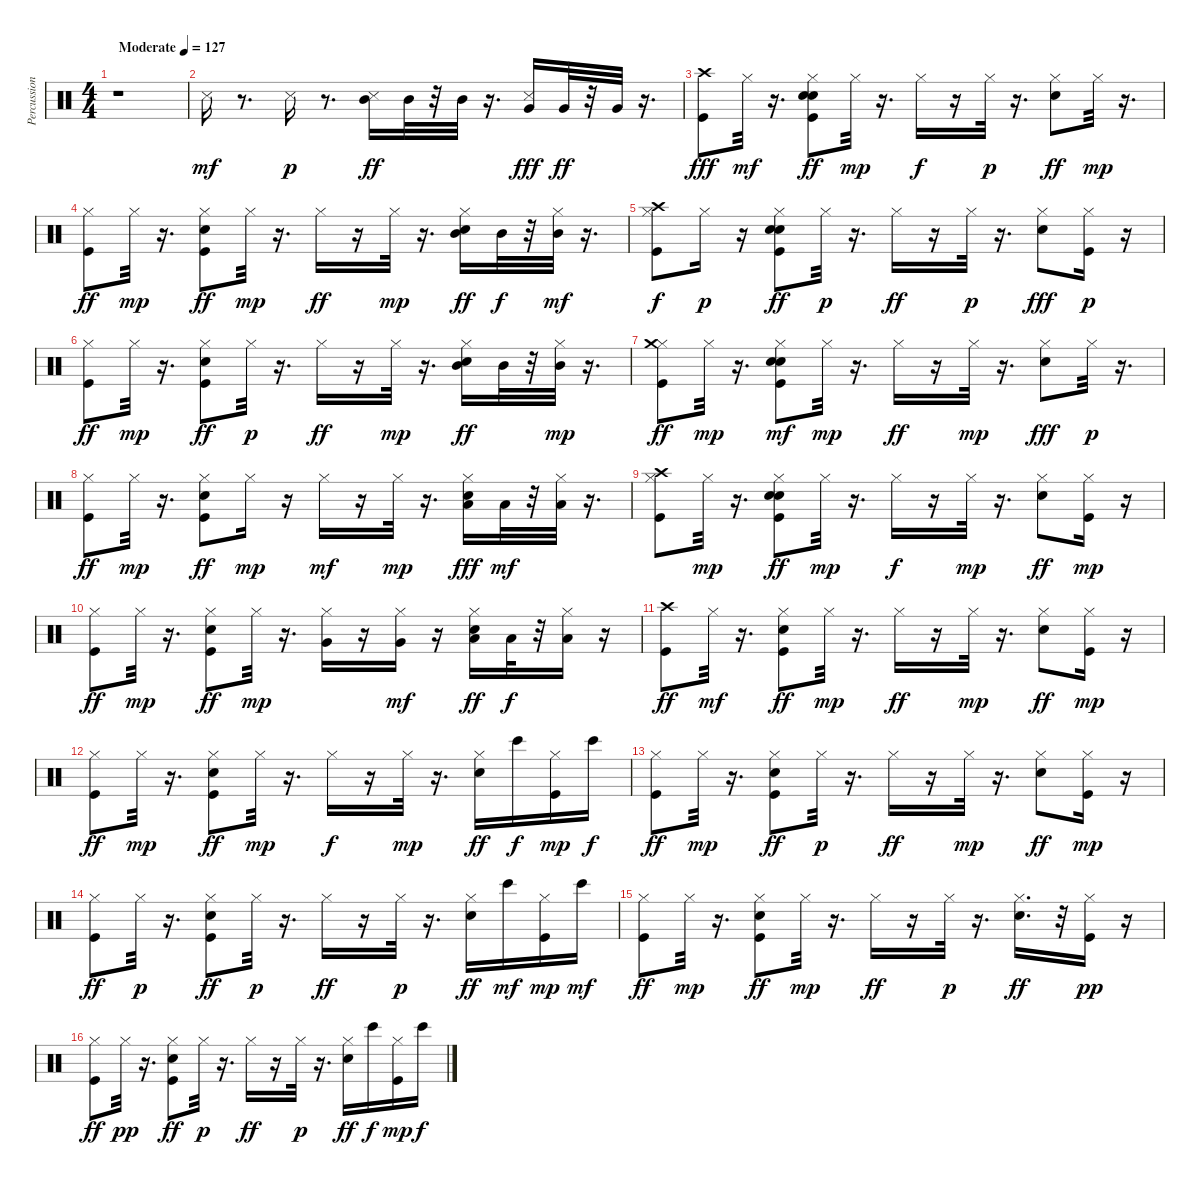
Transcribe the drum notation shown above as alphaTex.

\track ("Percussions (drums + hihats)" "Percussion") {instrument percussion}
\staff {score}
\articulation defaults
\ts (4 4)
\tempo (127 "Moderate")
\clef neutral
\ks c
r.1{dy mf} |
"Snare (side stick) 3".16 r.8{d} "Snare (side stick) 3".16{dy p} r.8{d} ("Snare (side stick) 3" "Mid Tom (hit)").16{dy ff} "Mid Tom (hit)".32 r.32 "Mid Tom (hit)".32 r.16{d} ("Snare (side stick) 3" "Very Low Tom (hit)").16{dy fff} "Very Low Tom (hit)".32{dy ff} r.32 "Very Low Tom (hit)".32 r.16{d} |
("Crash high (hit)" "Kick (hit)").8{dy fff} "Hi-Hat (closed)".32{dy mf} r.16{d} ("Kick (hit)" "Snare (hit) 2" "Electric Snare (hit)" "Hi-Hat (closed)").8{dy ff} "Hi-Hat (closed)".32{dy mp} r.16{d} "Hi-Hat (closed)".16{dy f} r.16 "Hi-Hat (closed)".32{dy p} r.16{d} ("Snare (hit) 2" "Hi-Hat (closed)").8{dy ff} "Hi-Hat (closed)".32{dy mp} r.16{d} |
("Kick (hit)" "Hi-Hat (closed)").8{dy ff} "Hi-Hat (closed)".32{dy mp} r.16{d} ("Kick (hit)" "Snare (hit) 2" "Hi-Hat (closed)").8{dy ff} "Hi-Hat (closed)".32{dy mp} r.16{d} "Hi-Hat (closed)".16{dy ff} r.16 "Hi-Hat (closed)".32{dy mp} r.16{d} ("Snare (hit) 2" "Hi-Hat (closed)" "Mid Tom (hit)").16{dy ff} "Mid Tom (hit)".32{dy f} r.32 ("Hi-Hat (closed)" "Mid Tom (hit)").32{dy mf} r.16{d} |
("Kick (hit)" "Hi-Hat (closed)" "Crash high (hit)").8{dy f} "Hi-Hat (closed)".16{dy p} r.16 ("Kick (hit)" "Snare (hit) 2" "Electric Snare (hit)" "Hi-Hat (closed)").8{dy ff} "Hi-Hat (closed)".32{dy p} r.16{d} "Hi-Hat (closed)".16{dy ff} r.16 "Hi-Hat (closed)".32{dy p} r.16{d} ("Snare (hit) 2" "Hi-Hat (closed)").8{dy fff} ("Kick (hit)" "Hi-Hat (closed)").16{dy p} r.16 |
("Kick (hit)" "Hi-Hat (closed)").8{dy ff} "Hi-Hat (closed)".32{dy mp} r.16{d} ("Kick (hit)" "Snare (hit) 2" "Hi-Hat (closed)").8{dy ff} "Hi-Hat (closed)".32{dy p} r.16{d} "Hi-Hat (closed)".16{dy ff} r.16 "Hi-Hat (closed)".32{dy mp} r.16{d} ("Snare (hit) 2" "Hi-Hat (closed)" "Mid Tom (hit)").16{dy ff} "Mid Tom (hit)".32 r.32 ("Hi-Hat (closed)" "Mid Tom (hit)").32{dy mp} r.16{d} |
("Kick (hit)" "Hi-Hat (closed)" "Crash medium (hit)").8{dy ff} "Hi-Hat (closed)".32{dy mp} r.16{d} ("Kick (hit)" "Snare (hit) 2" "Electric Snare (hit)" "Hi-Hat (closed)").8{dy mf} "Hi-Hat (closed)".32{dy mp} r.16{d} "Hi-Hat (closed)".16{dy ff} r.16 "Hi-Hat (closed)".32{dy mp} r.16{d} ("Snare (hit) 2" "Hi-Hat (closed)").8{dy fff} "Hi-Hat (closed)".32{dy p} r.16{d} |
("Kick (hit)" "Hi-Hat (closed)").8{dy ff} "Hi-Hat (closed)".32{dy mp} r.16{d} ("Kick (hit)" "Snare (hit) 2" "Hi-Hat (closed)").8{dy ff} "Hi-Hat (closed)".16{dy mp} r.16 "Hi-Hat (closed)".16{dy mf} r.16 "Hi-Hat (closed)".32{dy mp} r.16{d} ("Snare (hit) 2" "Hi-Hat (closed)" "Low Tom (hit)").16{dy fff} "Low Tom (hit)".32{dy mf} r.32 ("Hi-Hat (closed)" "Low Tom (hit)").32 r.16{d} |
("Kick (hit)" "Hi-Hat (closed)" "Crash high (hit)").8 "Hi-Hat (closed)".32{dy mp} r.16{d} ("Kick (hit)" "Snare (hit) 2" "Electric Snare (hit)" "Hi-Hat (closed)").8{dy ff} "Hi-Hat (closed)".32{dy mp} r.16{d} "Hi-Hat (closed)".16{dy f} r.16 "Hi-Hat (closed)".32{dy mp} r.16{d} ("Snare (hit) 2" "Hi-Hat (closed)").8{dy ff} ("Kick (hit)" "Hi-Hat (closed)").16{dy mp} r.16 |
("Kick (hit)" "Hi-Hat (closed)").8{dy ff} "Hi-Hat (closed)".32{dy mp} r.16{d} ("Kick (hit)" "Snare (hit) 2" "Hi-Hat (closed)").8{dy ff} "Hi-Hat (closed)".32{dy mp} r.16{d} ("Hi-Hat (closed)" "Very Low Tom (hit)").16 r.16 ("Hi-Hat (closed)" "Very Low Tom (hit)").16{dy mf} r.16 ("Snare (hit) 2" "Hi-Hat (closed)" "Low Tom (hit)").16{dy ff} "Low Tom (hit)".32{dy f} r.32 ("Hi-Hat (closed)" "Low Tom (hit)").16 r.16 |
("Crash high (hit)" "Kick (hit)").8{dy ff} "Hi-Hat (closed)".32{dy mf} r.16{d} ("Kick (hit)" "Snare (hit) 2" "Hi-Hat (closed)").8{dy ff} "Hi-Hat (closed)".32{dy mp} r.16{d} "Hi-Hat (closed)".16{dy ff} r.16 "Hi-Hat (closed)".32{dy mp} r.16{d} ("Snare (hit) 2" "Hi-Hat (closed)").8{dy ff} ("Kick (hit)" "Hi-Hat (closed)").16{dy mp} r.16 |
("Kick (hit)" "Hi-Hat (closed)").8{dy ff} "Hi-Hat (closed)".32{dy mp} r.16{d} ("Kick (hit)" "Snare (hit) 2" "Hi-Hat (closed)").8{dy ff} "Hi-Hat (closed)".32{dy mp} r.16{d} "Hi-Hat (closed)".16{dy f} r.16 "Hi-Hat (closed)".32{dy mp} r.16{d} ("Snare (hit) 2" "Hi-Hat (closed)").16{dy ff} "Bongo High (hit)".16{dy f} ("Kick (hit)" "Hi-Hat (closed)").16{dy mp} "Bongo High (hit)".16{dy f} |
("Kick (hit)" "Hi-Hat (closed)").8{dy ff} "Hi-Hat (closed)".32{dy mp} r.16{d} ("Kick (hit)" "Snare (hit) 2" "Hi-Hat (closed)").8{dy ff} "Hi-Hat (closed)".32{dy p} r.16{d} "Hi-Hat (closed)".16{dy ff} r.16 "Hi-Hat (closed)".32{dy mp} r.16{d} ("Snare (hit) 2" "Hi-Hat (closed)").8{dy ff} ("Kick (hit)" "Hi-Hat (closed)").16{dy mp} r.16 |
("Kick (hit)" "Hi-Hat (closed)").8{dy ff} "Hi-Hat (closed)".32{dy p} r.16{d} ("Kick (hit)" "Snare (hit) 2" "Hi-Hat (closed)").8{dy ff} "Hi-Hat (closed)".32{dy p} r.16{d} "Hi-Hat (closed)".16{dy ff} r.16 "Hi-Hat (closed)".32{dy p} r.16{d} ("Snare (hit) 2" "Hi-Hat (closed)").16{dy ff} "Bongo High (hit)".16{dy mf} ("Kick (hit)" "Hi-Hat (closed)").16{dy mp} "Bongo High (hit)".16{dy mf} |
("Kick (hit)" "Hi-Hat (closed)").8{dy ff} "Hi-Hat (closed)".32{dy mp} r.16{d} ("Kick (hit)" "Snare (hit) 2" "Hi-Hat (closed)").8{dy ff} "Hi-Hat (closed)".32{dy mp} r.16{d} "Hi-Hat (closed)".16{dy ff} r.16 "Hi-Hat (closed)".32{dy p} r.16{d} ("Snare (hit) 2" "Hi-Hat (closed)").16{d dy ff} r.32 ("Kick (hit)" "Hi-Hat (closed)").16{dy pp} r.16 |
("Kick (hit)" "Hi-Hat (closed)").8{dy ff} "Hi-Hat (closed)".32{dy pp} r.16{d} ("Kick (hit)" "Snare (hit) 2" "Hi-Hat (closed)").8{dy ff} "Hi-Hat (closed)".32{dy p} r.16{d} "Hi-Hat (closed)".16{dy ff} r.16 "Hi-Hat (closed)".32{dy p} r.16{d} ("Snare (hit) 2" "Hi-Hat (closed)").16{dy ff} "Bongo High (hit)".16{dy f} ("Kick (hit)" "Hi-Hat (closed)").16{dy mp} "Bongo High (hit)".16{dy f}
